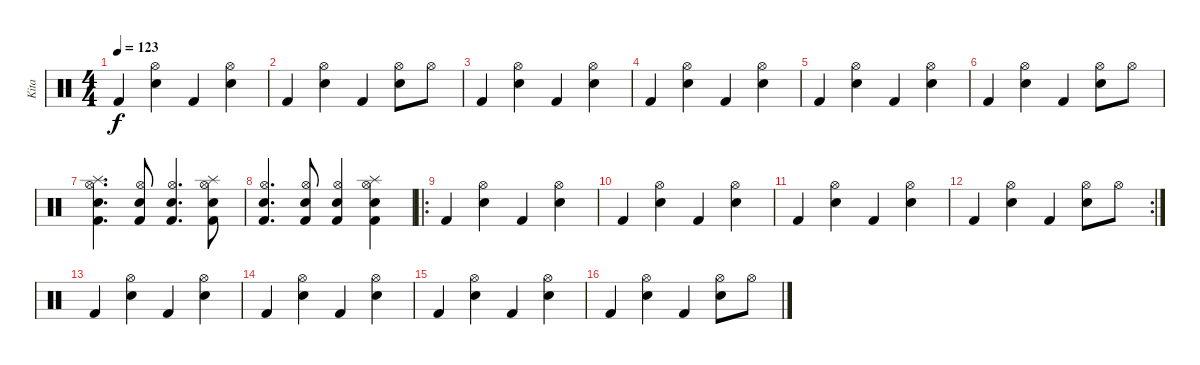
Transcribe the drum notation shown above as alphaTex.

\track ("Kita" "Kita") {instrument percussion}
\staff {score}
\articulation defaults
\ts (4 4)
\tempo 123
\clef neutral
\ks c "Kick (hit) 2".4{dy f}
("Hi-Hat (open)" "Snare (hit) 2").4 "Kick (hit) 2".4 ("Hi-Hat (open)" "Snare (hit) 2").4 |
"Kick (hit) 2".4 ("Hi-Hat (open)" "Snare (hit) 2").4 "Kick (hit) 2".4 ("Hi-Hat (open)" "Snare (hit) 2").8 "Hi-Hat (open)".8 |
"Kick (hit) 2".4 ("Hi-Hat (open)" "Snare (hit) 2").4 "Kick (hit) 2".4 ("Hi-Hat (open)" "Snare (hit) 2").4 |
"Kick (hit) 2".4 ("Hi-Hat (open)" "Snare (hit) 2").4 "Kick (hit) 2".4 ("Hi-Hat (open)" "Snare (hit) 2").4 |
"Kick (hit) 2".4 ("Hi-Hat (open)" "Snare (hit) 2").4 "Kick (hit) 2".4 ("Hi-Hat (open)" "Snare (hit) 2").4 |
"Kick (hit) 2".4 ("Hi-Hat (open)" "Snare (hit) 2").4 "Kick (hit) 2".4 ("Hi-Hat (open)" "Snare (hit) 2").8 "Hi-Hat (open)".8 |
("Kick (hit) 2" "Snare (hit) 2" "Hi-Hat (open)" "Splash (hit)").4{d} ("Snare (hit) 2" "Hi-Hat (open)" "Kick (hit) 2").8 ("Snare (hit) 2" "Hi-Hat (open)" "Kick (hit) 2").4{d} ("Splash (hit)" "Snare (hit) 2" "Hi-Hat (open)" "Kick (hit) 2").8 |
("Snare (hit) 2" "Hi-Hat (open)" "Kick (hit) 2").4{d} ("Snare (hit) 2" "Hi-Hat (open)" "Kick (hit) 2").8 ("Snare (hit) 2" "Hi-Hat (open)" "Kick (hit) 2").4 ("Splash (hit)" "Snare (hit) 2" "Hi-Hat (open)" "Kick (hit) 2").4 |
\ro "Kick (hit) 2".4
("Hi-Hat (open)" "Snare (hit) 2").4 "Kick (hit) 2".4 ("Hi-Hat (open)" "Snare (hit) 2").4 |
"Kick (hit) 2".4 ("Hi-Hat (open)" "Snare (hit) 2").4 "Kick (hit) 2".4 ("Hi-Hat (open)" "Snare (hit) 2").4 |
"Kick (hit) 2".4 ("Hi-Hat (open)" "Snare (hit) 2").4 "Kick (hit) 2".4 ("Hi-Hat (open)" "Snare (hit) 2").4 |
\rc 2 "Kick (hit) 2".4
("Hi-Hat (open)" "Snare (hit) 2").4 "Kick (hit) 2".4 ("Hi-Hat (open)" "Snare (hit) 2").8 "Hi-Hat (open)".8 |
"Kick (hit) 2".4 ("Hi-Hat (open)" "Snare (hit) 2").4 "Kick (hit) 2".4 ("Hi-Hat (open)" "Snare (hit) 2").4 |
"Kick (hit) 2".4 ("Hi-Hat (open)" "Snare (hit) 2").4 "Kick (hit) 2".4 ("Hi-Hat (open)" "Snare (hit) 2").4 |
"Kick (hit) 2".4 ("Hi-Hat (open)" "Snare (hit) 2").4 "Kick (hit) 2".4 ("Hi-Hat (open)" "Snare (hit) 2").4 |
"Kick (hit) 2".4 ("Hi-Hat (open)" "Snare (hit) 2").4 "Kick (hit) 2".4 ("Hi-Hat (open)" "Snare (hit) 2").8 "Hi-Hat (open)".8
